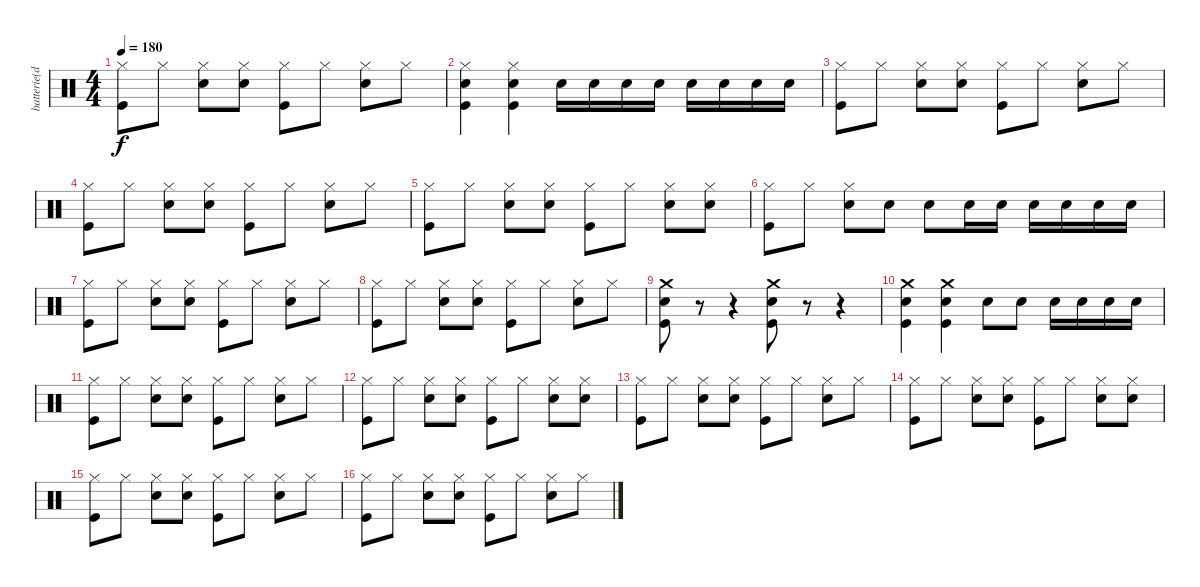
\track ("batterie(dave)" "batterie(d") {instrument percussion}
\staff {score}
\articulation defaults
\ts (4 4)
\tempo 180
\clef neutral
\ks c
("Hi-Hat (closed)" "Kick (hit)").8{dy f} "Hi-Hat (closed)".8 ("Hi-Hat (closed)" "Snare (hit) 2").8 ("Hi-Hat (closed)" "Snare (hit) 2").8 ("Hi-Hat (closed)" "Kick (hit)").8 "Hi-Hat (closed)".8 ("Hi-Hat (closed)" "Snare (hit) 2").8 "Hi-Hat (closed)".8 |
("Hi-Hat (closed)" "Snare (hit) 2" "Kick (hit)").4 ("Hi-Hat (closed)" "Snare (hit) 2" "Kick (hit)").4 "Snare (hit) 2".16 "Snare (hit) 2".16 "Snare (hit) 2".16 "Snare (hit) 2".16 "Snare (hit) 2".16 "Snare (hit) 2".16 "Snare (hit) 2".16 "Snare (hit) 2".16 |
("Hi-Hat (closed)" "Kick (hit)").8 "Hi-Hat (closed)".8 ("Hi-Hat (closed)" "Snare (hit) 2").8 ("Hi-Hat (closed)" "Snare (hit) 2").8 ("Hi-Hat (closed)" "Kick (hit)").8 "Hi-Hat (closed)".8 ("Hi-Hat (closed)" "Snare (hit) 2").8 "Hi-Hat (closed)".8 |
("Hi-Hat (closed)" "Kick (hit)").8 "Hi-Hat (closed)".8 ("Hi-Hat (closed)" "Snare (hit) 2").8 ("Hi-Hat (closed)" "Snare (hit) 2").8 ("Hi-Hat (closed)" "Kick (hit)").8 "Hi-Hat (closed)".8 ("Hi-Hat (closed)" "Snare (hit) 2").8 "Hi-Hat (closed)".8 |
("Hi-Hat (closed)" "Kick (hit)").8 "Hi-Hat (closed)".8 ("Hi-Hat (closed)" "Snare (hit) 2").8 ("Hi-Hat (closed)" "Snare (hit) 2").8 ("Hi-Hat (closed)" "Kick (hit)").8 "Hi-Hat (closed)".8 ("Hi-Hat (closed)" "Snare (hit) 2").8 ("Hi-Hat (closed)" "Snare (hit) 2").8 |
("Hi-Hat (closed)" "Kick (hit)").8 "Hi-Hat (closed)".8 ("Hi-Hat (closed)" "Snare (hit) 2").8 "Snare (hit) 2".8 "Snare (hit) 2".8 "Snare (hit) 2".16 "Snare (hit) 2".16 "Snare (hit) 2".16 "Snare (hit) 2".16 "Snare (hit) 2".16 "Snare (hit) 2".16 |
("Hi-Hat (closed)" "Kick (hit)").8 "Hi-Hat (closed)".8 ("Hi-Hat (closed)" "Snare (hit) 2").8 ("Hi-Hat (closed)" "Snare (hit) 2").8 ("Hi-Hat (closed)" "Kick (hit)").8 "Hi-Hat (closed)".8 ("Hi-Hat (closed)" "Snare (hit) 2").8 "Hi-Hat (closed)".8 |
("Hi-Hat (closed)" "Kick (hit)").8 "Hi-Hat (closed)".8 ("Hi-Hat (closed)" "Snare (hit) 2").8 ("Hi-Hat (closed)" "Snare (hit) 2").8 ("Hi-Hat (closed)" "Kick (hit)").8 "Hi-Hat (closed)".8 ("Hi-Hat (closed)" "Snare (hit) 2").8 "Hi-Hat (closed)".8 |
("Crash medium (hit)" "Snare (hit) 2" "Kick (hit)").8 r.8 r.4 ("Crash medium (hit)" "Snare (hit) 2" "Kick (hit)").8 r.8 r.4 |
("Crash medium (hit)" "Snare (hit) 2" "Kick (hit)").4 ("Crash medium (hit)" "Snare (hit) 2" "Kick (hit)").4 "Snare (hit) 2".8 "Snare (hit) 2".8 "Snare (hit) 2".16 "Snare (hit) 2".16 "Snare (hit) 2".16 "Snare (hit) 2".16 |
("Hi-Hat (closed)" "Kick (hit)").8 "Hi-Hat (closed)".8 ("Hi-Hat (closed)" "Snare (hit) 2").8 ("Hi-Hat (closed)" "Snare (hit) 2").8 ("Hi-Hat (closed)" "Kick (hit)").8 "Hi-Hat (closed)".8 ("Hi-Hat (closed)" "Snare (hit) 2").8 "Hi-Hat (closed)".8 |
("Hi-Hat (closed)" "Kick (hit)").8 "Hi-Hat (closed)".8 ("Hi-Hat (closed)" "Snare (hit) 2").8 ("Hi-Hat (closed)" "Snare (hit) 2").8 ("Hi-Hat (closed)" "Kick (hit)").8 "Hi-Hat (closed)".8 ("Hi-Hat (closed)" "Snare (hit) 2").8 ("Hi-Hat (closed)" "Snare (hit) 2").8 |
("Hi-Hat (closed)" "Kick (hit)").8 "Hi-Hat (closed)".8 ("Hi-Hat (closed)" "Snare (hit) 2").8 ("Hi-Hat (closed)" "Snare (hit) 2").8 ("Hi-Hat (closed)" "Kick (hit)").8 "Hi-Hat (closed)".8 ("Hi-Hat (closed)" "Snare (hit) 2").8 "Hi-Hat (closed)".8 |
("Hi-Hat (closed)" "Kick (hit)").8 "Hi-Hat (closed)".8 ("Hi-Hat (closed)" "Snare (hit) 2").8 ("Hi-Hat (closed)" "Snare (hit) 2").8 ("Hi-Hat (closed)" "Kick (hit)").8 "Hi-Hat (closed)".8 ("Hi-Hat (closed)" "Snare (hit) 2").8 ("Hi-Hat (closed)" "Snare (hit) 2").8 |
("Hi-Hat (closed)" "Kick (hit)").8 "Hi-Hat (closed)".8 ("Hi-Hat (closed)" "Snare (hit) 2").8 ("Hi-Hat (closed)" "Snare (hit) 2").8 ("Hi-Hat (closed)" "Kick (hit)").8 "Hi-Hat (closed)".8 ("Hi-Hat (closed)" "Snare (hit) 2").8 "Hi-Hat (closed)".8 |
("Hi-Hat (closed)" "Kick (hit)").8 "Hi-Hat (closed)".8 ("Hi-Hat (closed)" "Snare (hit) 2").8 ("Hi-Hat (closed)" "Snare (hit) 2").8 ("Hi-Hat (closed)" "Kick (hit)").8 "Hi-Hat (closed)".8 ("Hi-Hat (closed)" "Snare (hit) 2").8 "Hi-Hat (closed)".8
